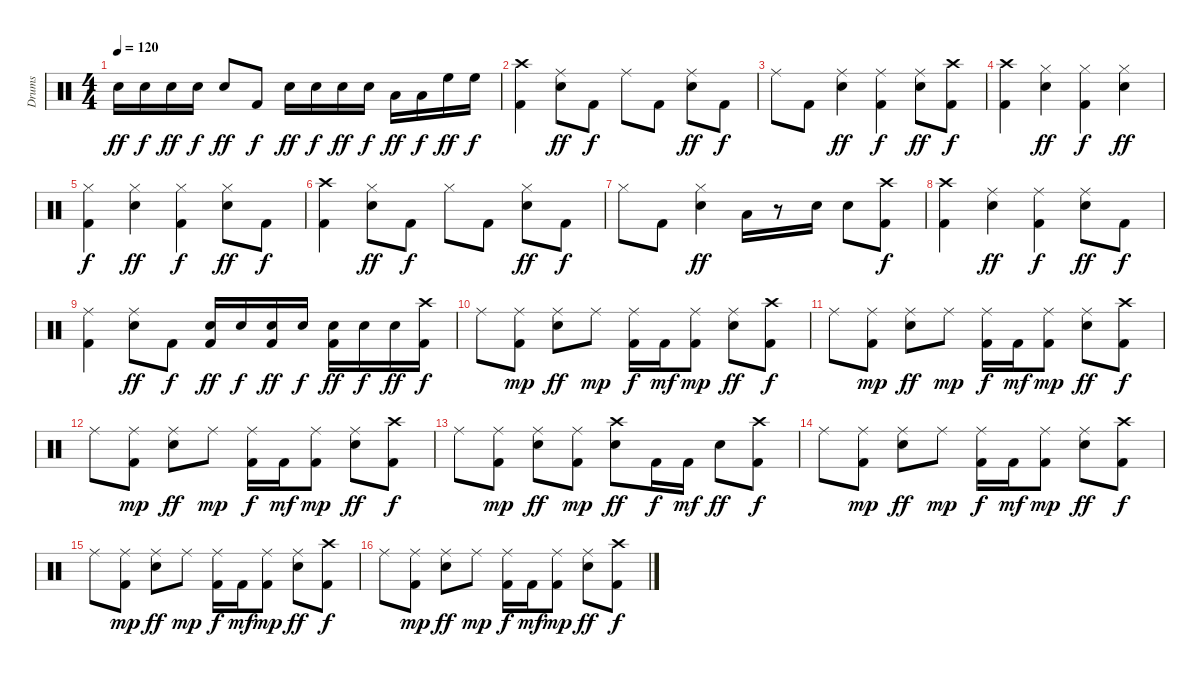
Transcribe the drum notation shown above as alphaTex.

\track ("Drums" "Drums") {instrument percussion}
\staff {score}
\articulation defaults
\ts (4 4)
\tempo 120
\clef neutral
\ks c "Snare (hit) 2".16{dy ff} "Snare (hit) 2".16{dy f} "Snare (hit) 2".16{dy ff} "Snare (hit) 2".16{dy f} "Snare (hit) 2".8{dy ff} "Kick (hit) 2".8{dy f} "Snare (hit) 2".16{dy ff} "Snare (hit) 2".16{dy f} "Snare (hit) 2".16{dy ff} "Snare (hit) 2".16{dy f} "Low Floor Tom (hit)".16{dy ff} "Low Floor Tom (hit)".16{dy f} "High Floor Tom (hit)".16{dy ff} "High Floor Tom (hit)".16{dy f}
|
("Crash high (hit)" "Kick (hit) 2").4 ("Snare (hit) 2" "Ride (middle)").8{dy ff} "Kick (hit) 2".8{dy f} "Ride (middle)".8 "Kick (hit) 2".8 ("Snare (hit) 2" "Ride (middle)").8{dy ff} "Kick (hit) 2".8{dy f} |
"Ride (middle)".8 "Kick (hit) 2".8 ("Snare (hit) 2" "Ride (middle)").4{dy ff} ("Ride (middle)" "Kick (hit) 2").4{dy f} ("Snare (hit) 2" "Ride (middle)").8{dy ff} ("Crash high (hit)" "Kick (hit) 2").8{dy f} |
("Crash high (hit)" "Kick (hit) 2").4 ("Snare (hit) 2" "Hi-Hat (closed)").4{dy ff} ("Hi-Hat (closed)" "Kick (hit) 2").4{dy f} ("Snare (hit) 2" "Hi-Hat (closed)").4{dy ff} |
("Hi-Hat (closed)" "Kick (hit) 2").4{dy f} ("Snare (hit) 2" "Hi-Hat (closed)").4{dy ff} ("Hi-Hat (closed)" "Kick (hit) 2").4{dy f} ("Snare (hit) 2" "Hi-Hat (closed)").8{dy ff} "Kick (hit) 2".8{dy f} |
("Crash high (hit)" "Kick (hit) 2").4 ("Snare (hit) 2" "Hi-Hat (closed)").8{dy ff} "Kick (hit) 2".8{dy f} "Hi-Hat (closed)".8 "Kick (hit) 2".8 ("Snare (hit) 2" "Hi-Hat (closed)").8{dy ff} "Kick (hit) 2".8{dy f} |
"Hi-Hat (closed)".8 "Kick (hit) 2".8 ("Snare (hit) 2" "Hi-Hat (closed)").4{dy ff} "Low Floor Tom (hit)".16 r.8 "Snare (hit) 2".16 "Snare (hit) 2".8 ("Crash high (hit)" "Kick (hit) 2").8{dy f} |
("Crash high (hit)" "Kick (hit) 2").4 ("Snare (hit) 2" "Ride (middle)").4{dy ff} ("Ride (middle)" "Kick (hit) 2").4{dy f} ("Snare (hit) 2" "Ride (middle)").8{dy ff} "Kick (hit) 2".8{dy f} |
("Ride (middle)" "Kick (hit) 2").4 ("Ride (middle)" "Snare (hit) 2").8{dy ff} "Kick (hit) 2".8{dy f} ("Snare (hit) 2" "Kick (hit) 2").16{dy ff} "Snare (hit) 2".16{dy f} ("Snare (hit) 2" "Kick (hit) 2").16{dy ff} "Snare (hit) 2".16{dy f} ("Snare (hit) 2" "Kick (hit) 2").16{dy ff} "Snare (hit) 2".16{dy f} "Snare (hit) 2".16{dy ff} ("Crash high (hit)" "Kick (hit) 2").16{dy f} |
"Ride (middle)".8 ("Ride (middle)" "Kick (hit) 2").8{dy mp} ("Snare (hit) 2" "Ride (middle)").8{dy ff} "Ride (middle)".8{dy mp} ("Ride (middle)" "Kick (hit) 2").16{dy f} "Kick (hit) 2".16{dy mf} ("Ride (middle)" "Kick (hit) 2").8{dy mp} ("Snare (hit) 2" "Ride (middle)").8{dy ff} ("Crash high (hit)" "Kick (hit) 2").8{dy f} |
"Ride (middle)".8 ("Ride (middle)" "Kick (hit) 2").8{dy mp} ("Snare (hit) 2" "Ride (middle)").8{dy ff} "Ride (middle)".8{dy mp} ("Ride (middle)" "Kick (hit) 2").16{dy f} "Kick (hit) 2".16{dy mf} ("Ride (middle)" "Kick (hit) 2").8{dy mp} ("Snare (hit) 2" "Ride (middle)").8{dy ff} ("Crash high (hit)" "Kick (hit) 2").8{dy f} |
"Ride (middle)".8 ("Ride (middle)" "Kick (hit) 2").8{dy mp} ("Snare (hit) 2" "Ride (middle)").8{dy ff} "Ride (middle)".8{dy mp} ("Ride (middle)" "Kick (hit) 2").16{dy f} "Kick (hit) 2".16{dy mf} ("Ride (middle)" "Kick (hit) 2").8{dy mp} ("Snare (hit) 2" "Ride (middle)").8{dy ff} ("Crash high (hit)" "Kick (hit) 2").8{dy f} |
"Ride (middle)".8 ("Ride (middle)" "Kick (hit) 2").8{dy mp} ("Snare (hit) 2" "Ride (middle)").8{dy ff} ("Ride (middle)" "Kick (hit) 2").8{dy mp} ("Snare (hit) 2" "Crash high (hit)").8{dy ff} "Kick (hit) 2".16{dy f} "Kick (hit) 2".16{dy mf} "Snare (hit) 2".8{dy ff} ("Crash high (hit)" "Kick (hit) 2").8{dy f} |
"Ride (middle)".8 ("Ride (middle)" "Kick (hit) 2").8{dy mp} ("Snare (hit) 2" "Ride (middle)").8{dy ff} "Ride (middle)".8{dy mp} ("Ride (middle)" "Kick (hit) 2").16{dy f} "Kick (hit) 2".16{dy mf} ("Ride (middle)" "Kick (hit) 2").8{dy mp} ("Snare (hit) 2" "Ride (middle)").8{dy ff} ("Crash high (hit)" "Kick (hit) 2").8{dy f} |
"Ride (middle)".8 ("Ride (middle)" "Kick (hit) 2").8{dy mp} ("Snare (hit) 2" "Ride (middle)").8{dy ff} "Ride (middle)".8{dy mp} ("Ride (middle)" "Kick (hit) 2").16{dy f} "Kick (hit) 2".16{dy mf} ("Ride (middle)" "Kick (hit) 2").8{dy mp} ("Snare (hit) 2" "Ride (middle)").8{dy ff} ("Crash high (hit)" "Kick (hit) 2").8{dy f} |
"Ride (middle)".8 ("Ride (middle)" "Kick (hit) 2").8{dy mp} ("Snare (hit) 2" "Ride (middle)").8{dy ff} "Ride (middle)".8{dy mp} ("Ride (middle)" "Kick (hit) 2").16{dy f} "Kick (hit) 2".16{dy mf} ("Ride (middle)" "Kick (hit) 2").8{dy mp} ("Snare (hit) 2" "Ride (middle)").8{dy ff} ("Crash high (hit)" "Kick (hit) 2").8{dy f}
